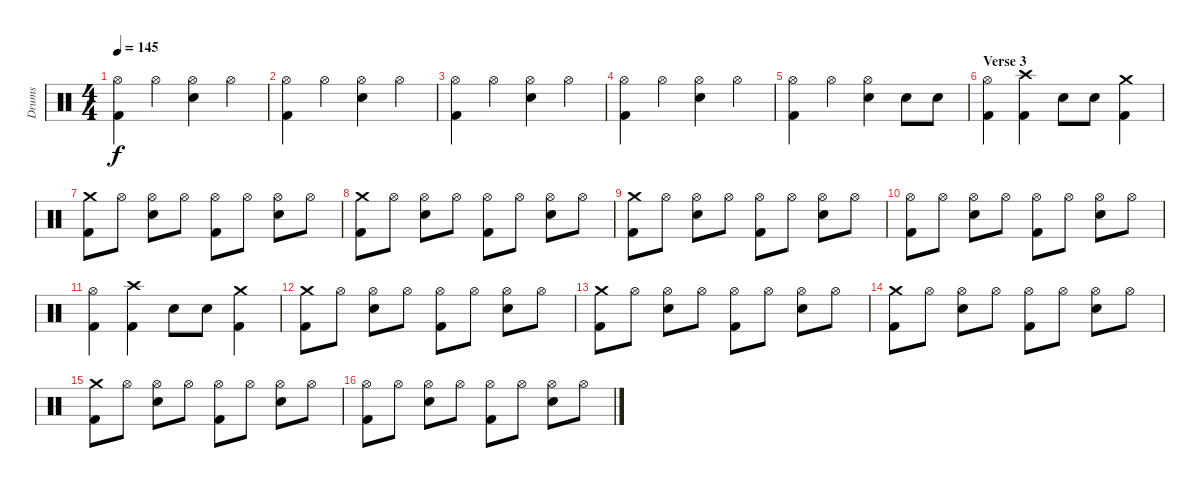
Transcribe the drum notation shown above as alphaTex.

\track ("Drums" "Drums") {instrument percussion}
\staff {score}
\articulation defaults
\ts (4 4)
\tempo 145
\clef neutral
\ks c
("Hi-Hat (open)" "Kick (hit) 2").4{dy f} "Hi-Hat (open)".4 ("Hi-Hat (open)" "Electric Snare (hit)").4 "Hi-Hat (open)".4 |
("Hi-Hat (open)" "Kick (hit) 2").4 "Hi-Hat (open)".4 ("Hi-Hat (open)" "Electric Snare (hit)").4 "Hi-Hat (open)".4 |
("Hi-Hat (open)" "Kick (hit) 2").4 "Hi-Hat (open)".4 ("Hi-Hat (open)" "Electric Snare (hit)").4 "Hi-Hat (open)".4 |
("Hi-Hat (open)" "Kick (hit) 2").4 "Hi-Hat (open)".4 ("Hi-Hat (open)" "Electric Snare (hit)").4 "Hi-Hat (open)".4 |
("Hi-Hat (open)" "Kick (hit) 2").4 "Hi-Hat (open)".4 ("Hi-Hat (open)" "Electric Snare (hit)").4 "Electric Snare (hit)".8 "Electric Snare (hit)".8 |
\section ("" "Verse 3")
("Hi-Hat (open)" "Kick (hit) 2").4 ("Crash high (hit)" "Kick (hit) 2").4 "Electric Snare (hit)".8 "Electric Snare (hit)".8 ("Crash medium (hit)" "Kick (hit) 2").4 |
("Crash medium (hit)" "Kick (hit) 2").8 "Hi-Hat (open)".8 ("Hi-Hat (open)" "Electric Snare (hit)").8 "Hi-Hat (open)".8 ("Hi-Hat (open)" "Kick (hit) 2").8 "Hi-Hat (open)".8 ("Hi-Hat (open)" "Electric Snare (hit)").8 "Hi-Hat (open)".8 |
("Crash medium (hit)" "Kick (hit) 2").8 "Hi-Hat (open)".8 ("Hi-Hat (open)" "Electric Snare (hit)").8 "Hi-Hat (open)".8 ("Hi-Hat (open)" "Kick (hit) 2").8 "Hi-Hat (open)".8 ("Hi-Hat (open)" "Electric Snare (hit)").8 "Hi-Hat (open)".8 |
("Crash medium (hit)" "Kick (hit) 2").8 "Hi-Hat (open)".8 ("Hi-Hat (open)" "Electric Snare (hit)").8 "Hi-Hat (open)".8 ("Hi-Hat (open)" "Kick (hit) 2").8 "Hi-Hat (open)".8 ("Hi-Hat (open)" "Electric Snare (hit)").8 "Hi-Hat (open)".8 |
("Hi-Hat (open)" "Kick (hit) 2").8 "Hi-Hat (open)".8 ("Hi-Hat (open)" "Electric Snare (hit)").8 "Hi-Hat (open)".8 ("Hi-Hat (open)" "Kick (hit) 2").8 "Hi-Hat (open)".8 ("Hi-Hat (open)" "Electric Snare (hit)").8 "Hi-Hat (open)".8 |
("Hi-Hat (open)" "Kick (hit) 2").4 ("Crash high (hit)" "Kick (hit) 2").4 "Electric Snare (hit)".8 "Electric Snare (hit)".8 ("Crash medium (hit)" "Kick (hit) 2").4 |
("Crash medium (hit)" "Kick (hit) 2").8 "Hi-Hat (open)".8 ("Hi-Hat (open)" "Electric Snare (hit)").8 "Hi-Hat (open)".8 ("Hi-Hat (open)" "Kick (hit) 2").8 "Hi-Hat (open)".8 ("Hi-Hat (open)" "Electric Snare (hit)").8 "Hi-Hat (open)".8 |
("Crash medium (hit)" "Kick (hit) 2").8 "Hi-Hat (open)".8 ("Hi-Hat (open)" "Electric Snare (hit)").8 "Hi-Hat (open)".8 ("Hi-Hat (open)" "Kick (hit) 2").8 "Hi-Hat (open)".8 ("Hi-Hat (open)" "Electric Snare (hit)").8 "Hi-Hat (open)".8 |
("Crash medium (hit)" "Kick (hit) 2").8 "Hi-Hat (open)".8 ("Hi-Hat (open)" "Electric Snare (hit)").8 "Hi-Hat (open)".8 ("Hi-Hat (open)" "Kick (hit) 2").8 "Hi-Hat (open)".8 ("Hi-Hat (open)" "Electric Snare (hit)").8 "Hi-Hat (open)".8 |
("Crash medium (hit)" "Kick (hit) 2").8 "Hi-Hat (open)".8 ("Hi-Hat (open)" "Electric Snare (hit)").8 "Hi-Hat (open)".8 ("Hi-Hat (open)" "Kick (hit) 2").8 "Hi-Hat (open)".8 ("Hi-Hat (open)" "Electric Snare (hit)").8 "Hi-Hat (open)".8 |
("Hi-Hat (open)" "Kick (hit) 2").8 "Hi-Hat (open)".8 ("Hi-Hat (open)" "Electric Snare (hit)").8 "Hi-Hat (open)".8 ("Hi-Hat (open)" "Kick (hit) 2").8 "Hi-Hat (open)".8 ("Hi-Hat (open)" "Electric Snare (hit)").8 "Hi-Hat (open)".8
